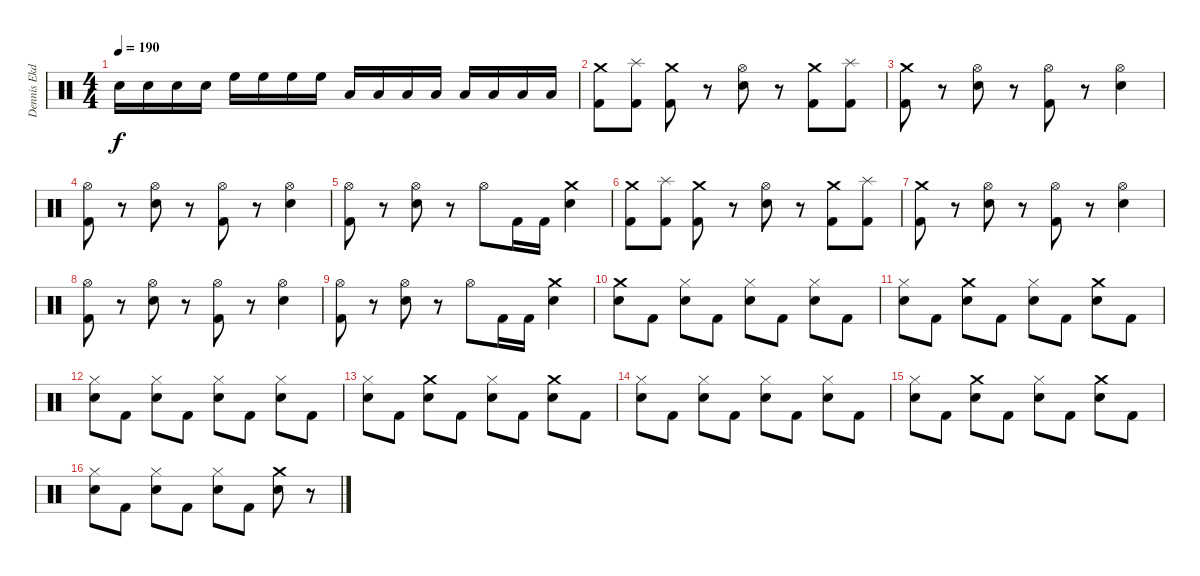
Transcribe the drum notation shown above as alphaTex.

\track ("Dennis Ekdahl" "Dennis Ekd") {instrument percussion}
\staff {score}
\articulation defaults
\ts (4 4)
\tempo 190
\clef neutral
\ks c "Snare (hit) 2".16{dy f} "Snare (hit) 2".16 "Snare (hit) 2".16 "Snare (hit) 2".16 "High Floor Tom (hit)".16 "High Floor Tom (hit)".16 "High Floor Tom (hit)".16 "High Floor Tom (hit)".16 "Low Tom (hit)".16 "Low Tom (hit)".16 "Low Tom (hit)".16 "Low Tom (hit)".16 "Low Floor Tom (hit)".16 "Low Floor Tom (hit)".16 "Low Floor Tom (hit)".16 "Low Floor Tom (hit)".16
|
("Crash medium (hit)" "Kick (hit) 2").8 ("Splash (hit)" "Kick (hit) 2").8 ("Crash medium (hit)" "Kick (hit) 2").8 r.8 ("Hi-Hat (open)" "Snare (hit) 2").8 r.8 ("Crash medium (hit)" "Kick (hit) 2").8 ("Splash (hit)" "Kick (hit) 2").8 |
("Crash medium (hit)" "Kick (hit) 2").8 r.8 ("Hi-Hat (open)" "Snare (hit) 2").8 r.8 ("Hi-Hat (open)" "Kick (hit) 2").8 r.8 ("Hi-Hat (open)" "Snare (hit) 2").4 |
("Hi-Hat (open)" "Kick (hit) 2").8 r.8 ("Hi-Hat (open)" "Snare (hit) 2").8 r.8 ("Hi-Hat (open)" "Kick (hit) 2").8 r.8 ("Hi-Hat (open)" "Snare (hit) 2").4 |
("Hi-Hat (open)" "Kick (hit) 2").8 r.8 ("Hi-Hat (open)" "Snare (hit) 2").8 r.8 "Hi-Hat (open)".8 "Kick (hit) 2".16 "Kick (hit) 2".16 ("Crash medium (hit)" "Snare (hit) 2").4 |
("Crash medium (hit)" "Kick (hit) 2").8 ("Splash (hit)" "Kick (hit) 2").8 ("Crash medium (hit)" "Kick (hit) 2").8 r.8 ("Hi-Hat (open)" "Snare (hit) 2").8 r.8 ("Crash medium (hit)" "Kick (hit) 2").8 ("Splash (hit)" "Kick (hit) 2").8 |
("Crash medium (hit)" "Kick (hit) 2").8 r.8 ("Hi-Hat (open)" "Snare (hit) 2").8 r.8 ("Hi-Hat (open)" "Kick (hit) 2").8 r.8 ("Hi-Hat (open)" "Snare (hit) 2").4 |
("Hi-Hat (open)" "Kick (hit) 2").8 r.8 ("Hi-Hat (open)" "Snare (hit) 2").8 r.8 ("Hi-Hat (open)" "Kick (hit) 2").8 r.8 ("Hi-Hat (open)" "Snare (hit) 2").4 |
("Hi-Hat (open)" "Kick (hit) 2").8 r.8 ("Hi-Hat (open)" "Snare (hit) 2").8 r.8 "Hi-Hat (open)".8 "Kick (hit) 2".16 "Kick (hit) 2".16 ("Crash medium (hit)" "Snare (hit) 2").4 |
("Crash medium (hit)" "Snare (hit) 2").8 "Kick (hit) 2".8 ("Hi-Hat (closed)" "Snare (hit) 2").8 "Kick (hit) 2".8 ("Hi-Hat (closed)" "Snare (hit) 2").8 "Kick (hit) 2".8 ("Hi-Hat (closed)" "Snare (hit) 2").8 "Kick (hit) 2".8 |
("Hi-Hat (closed)" "Snare (hit) 2").8 "Kick (hit) 2".8 ("Crash medium (hit)" "Snare (hit) 2").8 "Kick (hit) 2".8 ("Hi-Hat (closed)" "Snare (hit) 2").8 "Kick (hit) 2".8 ("Crash medium (hit)" "Snare (hit) 2").8 "Kick (hit) 2".8 |
("Hi-Hat (closed)" "Snare (hit) 2").8 "Kick (hit) 2".8 ("Hi-Hat (closed)" "Snare (hit) 2").8 "Kick (hit) 2".8 ("Hi-Hat (closed)" "Snare (hit) 2").8 "Kick (hit) 2".8 ("Hi-Hat (closed)" "Snare (hit) 2").8 "Kick (hit) 2".8 |
("Hi-Hat (closed)" "Snare (hit) 2").8 "Kick (hit) 2".8 ("Crash medium (hit)" "Snare (hit) 2").8 "Kick (hit) 2".8 ("Hi-Hat (closed)" "Snare (hit) 2").8 "Kick (hit) 2".8 ("Crash medium (hit)" "Snare (hit) 2").8 "Kick (hit) 2".8 |
("Hi-Hat (closed)" "Snare (hit) 2").8 "Kick (hit) 2".8 ("Hi-Hat (closed)" "Snare (hit) 2").8 "Kick (hit) 2".8 ("Hi-Hat (closed)" "Snare (hit) 2").8 "Kick (hit) 2".8 ("Hi-Hat (closed)" "Snare (hit) 2").8 "Kick (hit) 2".8 |
("Hi-Hat (closed)" "Snare (hit) 2").8 "Kick (hit) 2".8 ("Crash medium (hit)" "Snare (hit) 2").8 "Kick (hit) 2".8 ("Hi-Hat (closed)" "Snare (hit) 2").8 "Kick (hit) 2".8 ("Crash medium (hit)" "Snare (hit) 2").8 "Kick (hit) 2".8 |
("Hi-Hat (closed)" "Snare (hit) 2").8 "Kick (hit) 2".8 ("Hi-Hat (closed)" "Snare (hit) 2").8 "Kick (hit) 2".8 ("Hi-Hat (closed)" "Snare (hit) 2").8 "Kick (hit) 2".8 ("Crash medium (hit)" "Snare (hit) 2").8 r.8
